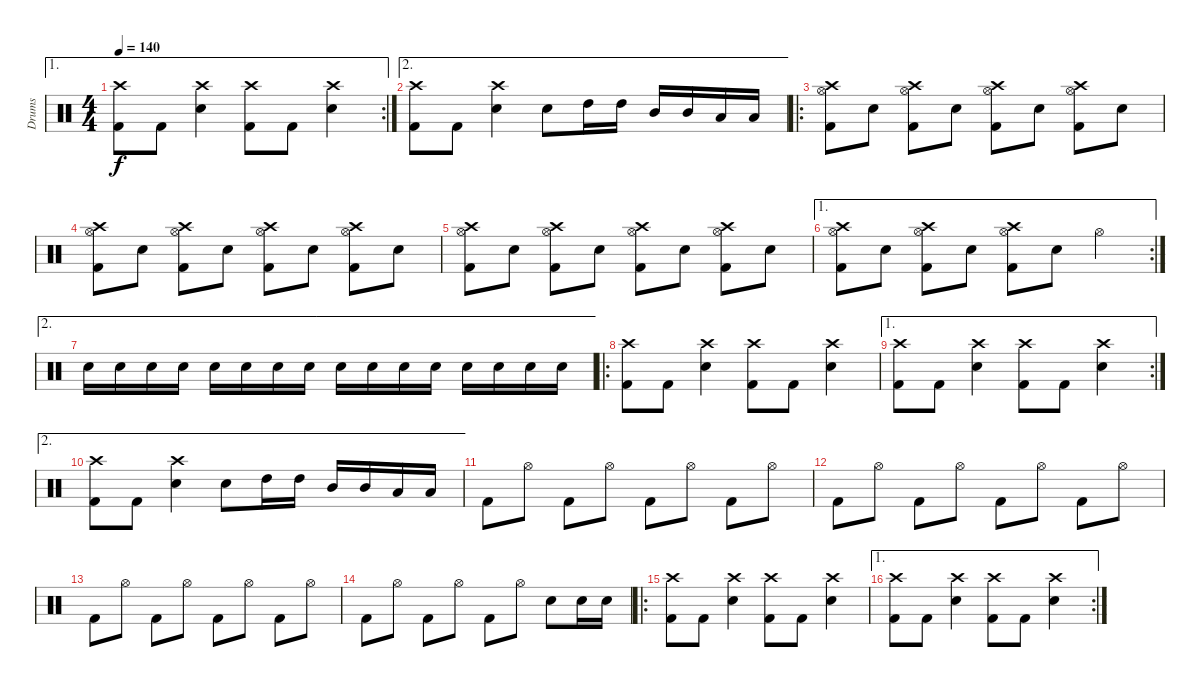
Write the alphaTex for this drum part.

\track ("Drums" "Drums") {instrument percussion}
\staff {score}
\articulation defaults
\ae 1
\rc 2
\ts (4 4)
\tempo 140
\clef neutral
\ks c
("Crash high (hit)" "Kick (hit) 2").8{dy f} "Kick (hit) 2".8 ("Crash high (hit)" "Snare (hit) 2").4 ("Crash high (hit)" "Kick (hit) 2").8 "Kick (hit) 2".8 ("Crash high (hit)" "Snare (hit) 2").4 |
\ae 2
("Crash high (hit)" "Kick (hit) 2").8 "Kick (hit) 2".8 ("Crash high (hit)" "Snare (hit) 2").4 "Snare (hit) 2".8 "High Tom (hit)".16 "High Tom (hit)".16 "Mid Tom (hit)".16 "Mid Tom (hit)".16 "Low Tom (hit)".16 "Low Tom (hit)".16 |
\ro
("Crash high (hit)" "Hi-Hat (open)" "Kick (hit) 2").8 "Snare (hit) 2".8 ("Crash high (hit)" "Hi-Hat (open)" "Kick (hit) 2").8 "Snare (hit) 2".8 ("Crash high (hit)" "Hi-Hat (open)" "Kick (hit) 2").8 "Snare (hit) 2".8 ("Crash high (hit)" "Hi-Hat (open)" "Kick (hit) 2").8 "Snare (hit) 2".8 |
("Crash high (hit)" "Hi-Hat (open)" "Kick (hit) 2").8 "Snare (hit) 2".8 ("Crash high (hit)" "Hi-Hat (open)" "Kick (hit) 2").8 "Snare (hit) 2".8 ("Crash high (hit)" "Hi-Hat (open)" "Kick (hit) 2").8 "Snare (hit) 2".8 ("Crash high (hit)" "Hi-Hat (open)" "Kick (hit) 2").8 "Snare (hit) 2".8 |
("Crash high (hit)" "Hi-Hat (open)" "Kick (hit) 2").8 "Snare (hit) 2".8 ("Crash high (hit)" "Hi-Hat (open)" "Kick (hit) 2").8 "Snare (hit) 2".8 ("Crash high (hit)" "Hi-Hat (open)" "Kick (hit) 2").8 "Snare (hit) 2".8 ("Crash high (hit)" "Hi-Hat (open)" "Kick (hit) 2").8 "Snare (hit) 2".8 |
\ae 1
\rc 2
("Crash high (hit)" "Hi-Hat (open)" "Kick (hit) 2").8 "Snare (hit) 2".8 ("Crash high (hit)" "Hi-Hat (open)" "Kick (hit) 2").8 "Snare (hit) 2".8 ("Crash high (hit)" "Hi-Hat (open)" "Kick (hit) 2").8 "Snare (hit) 2".8 "Hi-Hat (open)".4 |
\ae 2 "Snare (hit) 2".16 "Snare (hit) 2".16 "Snare (hit) 2".16 "Snare (hit) 2".16 "Snare (hit) 2".16 "Snare (hit) 2".16 "Snare (hit) 2".16 "Snare (hit) 2".16 "Snare (hit) 2".16 "Snare (hit) 2".16 "Snare (hit) 2".16 "Snare (hit) 2".16 "Snare (hit) 2".16 "Snare (hit) 2".16 "Snare (hit) 2".16 "Snare (hit) 2".16
|
\ro
("Crash high (hit)" "Kick (hit) 2").8 "Kick (hit) 2".8 ("Crash high (hit)" "Snare (hit) 2").4 ("Crash high (hit)" "Kick (hit) 2").8 "Kick (hit) 2".8 ("Crash high (hit)" "Snare (hit) 2").4 |
\ae 1
\rc 2
("Crash high (hit)" "Kick (hit) 2").8 "Kick (hit) 2".8 ("Crash high (hit)" "Snare (hit) 2").4 ("Crash high (hit)" "Kick (hit) 2").8 "Kick (hit) 2".8 ("Crash high (hit)" "Snare (hit) 2").4 |
\ae 2
("Crash high (hit)" "Kick (hit) 2").8 "Kick (hit) 2".8 ("Crash high (hit)" "Snare (hit) 2").4 "Snare (hit) 2".8 "High Tom (hit)".16 "High Tom (hit)".16 "Mid Tom (hit)".16 "Mid Tom (hit)".16 "Low Tom (hit)".16 "Low Tom (hit)".16 |
"Kick (hit) 2".8 "Hi-Hat (open)".8 "Kick (hit) 2".8 "Hi-Hat (open)".8 "Kick (hit) 2".8 "Hi-Hat (open)".8 "Kick (hit) 2".8 "Hi-Hat (open)".8 |
"Kick (hit) 2".8 "Hi-Hat (open)".8 "Kick (hit) 2".8 "Hi-Hat (open)".8 "Kick (hit) 2".8 "Hi-Hat (open)".8 "Kick (hit) 2".8 "Hi-Hat (open)".8 |
"Kick (hit) 2".8 "Hi-Hat (open)".8 "Kick (hit) 2".8 "Hi-Hat (open)".8 "Kick (hit) 2".8 "Hi-Hat (open)".8 "Kick (hit) 2".8 "Hi-Hat (open)".8 |
"Kick (hit) 2".8 "Hi-Hat (open)".8 "Kick (hit) 2".8 "Hi-Hat (open)".8 "Kick (hit) 2".8 "Hi-Hat (open)".8 "Snare (hit) 2".8 "Snare (hit) 2".16 "Snare (hit) 2".16 |
\ro
("Crash high (hit)" "Kick (hit) 2").8 "Kick (hit) 2".8 ("Crash high (hit)" "Snare (hit) 2").4 ("Crash high (hit)" "Kick (hit) 2").8 "Kick (hit) 2".8 ("Crash high (hit)" "Snare (hit) 2").4 |
\ae 1
\rc 2
("Crash high (hit)" "Kick (hit) 2").8 "Kick (hit) 2".8 ("Crash high (hit)" "Snare (hit) 2").4 ("Crash high (hit)" "Kick (hit) 2").8 "Kick (hit) 2".8 ("Crash high (hit)" "Snare (hit) 2").4
